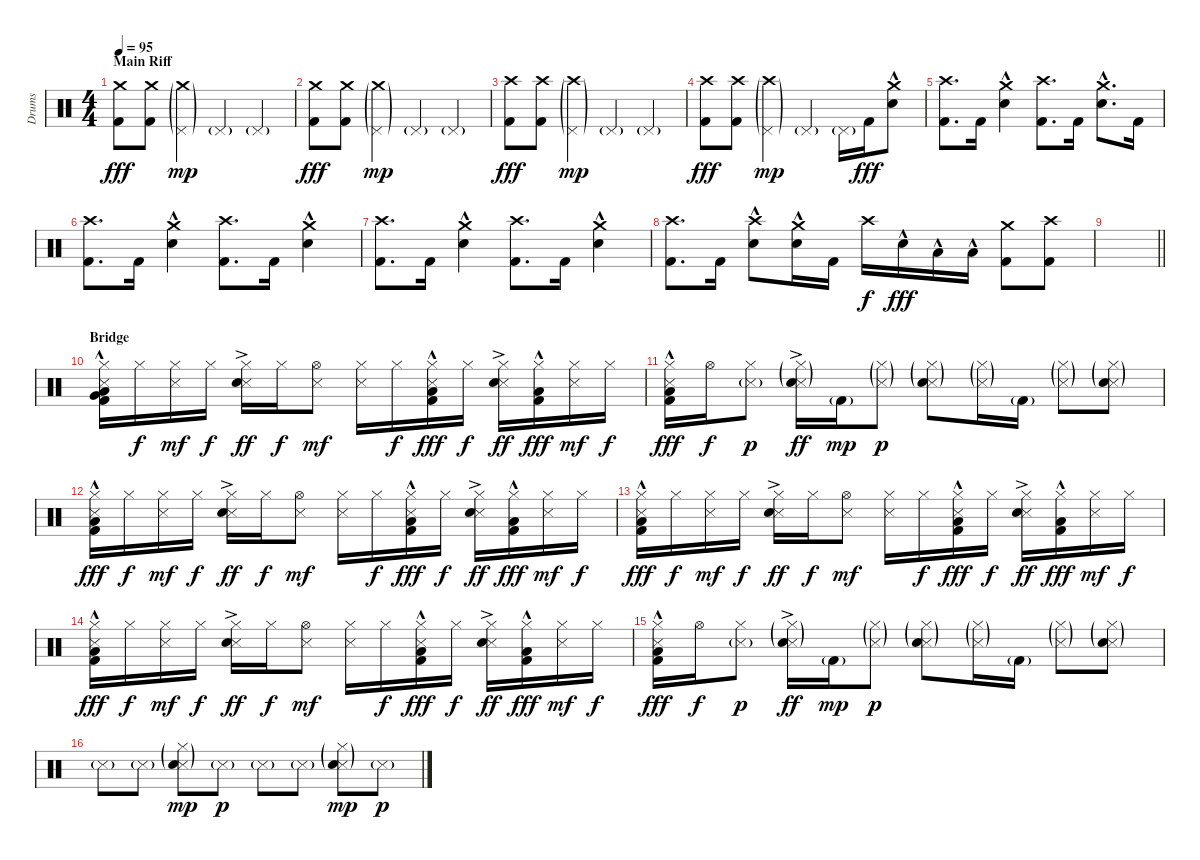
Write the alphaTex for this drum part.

\track ("Drums" "Drums") {instrument percussion}
\staff {score}
\articulation defaults
\ts (4 4)
\section ("" "Main Riff")
\tempo 95
\clef neutral
\ks c
("Crash medium (hit)" "Kick (hit) 2").8{dy fff volume 10} ("Crash medium (hit)" "Kick (hit) 2").8 ("Crash medium (hit)"{g} "Pedal Hi-Hat (hit)"{g}).4{dy mp} "Pedal Hi-Hat (hit)"{g}.4 "Pedal Hi-Hat (hit)"{g}.4 |
("Crash medium (hit)" "Kick (hit) 2").8{dy fff} ("Crash medium (hit)" "Kick (hit) 2").8 ("Crash medium (hit)"{g} "Pedal Hi-Hat (hit)"{g}).4{dy mp} "Pedal Hi-Hat (hit)"{g}.4 "Pedal Hi-Hat (hit)"{g}.4 |
("Crash high (hit)" "Kick (hit) 2").8{dy fff} ("Crash high (hit)" "Kick (hit) 2").8 ("Crash high (hit)"{g} "Pedal Hi-Hat (hit)"{g}).4{dy mp} "Pedal Hi-Hat (hit)"{g}.4 "Pedal Hi-Hat (hit)"{g}.4 |
("Crash high (hit)" "Kick (hit) 2").8{dy fff} ("Crash high (hit)" "Kick (hit) 2").8 ("Crash high (hit)"{g} "Pedal Hi-Hat (hit)"{g}).4{dy mp} "Pedal Hi-Hat (hit)"{g}.4 "Pedal Hi-Hat (hit)"{g}.16 "Kick (hit) 2".16{dy fff} ("Crash medium (hit)" "Electric Snare (hit)"{hac}).8 |
("Crash high (hit)" "Kick (hit) 2").8{d} "Kick (hit) 2".16 ("Crash medium (hit)" "Electric Snare (hit)"{hac}).4 ("Crash high (hit)" "Kick (hit) 2").8{d} "Kick (hit) 2".16 ("Crash medium (hit)" "Electric Snare (hit)"{hac}).8{d} "Kick (hit) 2".16 |
("Crash high (hit)" "Kick (hit) 2").8{d} "Kick (hit) 2".16 ("Crash medium (hit)" "Electric Snare (hit)"{hac}).4 ("Crash high (hit)" "Kick (hit) 2").8{d} "Kick (hit) 2".16 ("Crash medium (hit)" "Electric Snare (hit)"{hac}).4 |
("Crash high (hit)" "Kick (hit) 2").8{d} "Kick (hit) 2".16 ("Crash medium (hit)" "Electric Snare (hit)"{hac}).4 ("Crash high (hit)" "Kick (hit) 2").8{d} "Kick (hit) 2".16 ("Crash medium (hit)" "Electric Snare (hit)"{hac}).4 |
("Crash high (hit)" "Kick (hit) 2").8{d} "Kick (hit) 2".16 ("Crash high (hit)" "Electric Snare (hit)"{hac}).8 ("Crash medium (hit)" "Electric Snare (hit)"{hac}).16 "Kick (hit) 2".16 "Crash high (hit)".16{dy f} "Electric Snare (hit)"{hac}.16{dy fff} "Low Tom (hit)"{hac}.16 "Low Tom (hit)"{hac}.16 ("Crash medium (hit)" "Kick (hit) 2").8 ("Crash high (hit)" "Kick (hit) 2").8 |
\barLineRight lightlight
|
\section ("" "Bridge")
("Metronome (hit)" "Hi-Hat (closed)" "Very Low Tom (hit)"{hac} "Low Floor Tom (hit)"{hac} "Kick (hit) 2").16 "Hi-Hat (closed)".16{dy f} ("Metronome (hit)" "Hi-Hat (closed)").16{dy mf} "Hi-Hat (closed)".16{dy f} ("Metronome (hit)" "Hi-Hat (closed)" "Electric Snare (hit)"{ac}).16{dy ff} "Hi-Hat (closed)".16{dy f} ("Metronome (hit)" "Hi-Hat (open)").8{dy mf} ("Metronome (hit)" "Hi-Hat (closed)").16 "Hi-Hat (closed)".16{dy f} ("Metronome (hit)" "Hi-Hat (closed)" "Low Floor Tom (hit)"{hac} "Kick (hit) 2").16{dy fff} "Hi-Hat (closed)".16{dy f} ("Metronome (hit)" "Hi-Hat (closed)" "Electric Snare (hit)"{ac}).16{dy ff} ("Hi-Hat (closed)" "Low Floor Tom (hit)"{hac} "Kick (hit) 2").16{dy fff} ("Metronome (hit)" "Hi-Hat (closed)").16{dy mf} "Hi-Hat (closed)".16{dy f} |
("Metronome (hit)" "Hi-Hat (closed)" "Low Floor Tom (hit)"{hac} "Kick (hit) 2").16{dy fff} "Hi-Hat (open)".16{dy f} ("Metronome (hit)"{g} "Hi-Hat (closed)").8{dy p} ("Metronome (hit)"{g} "Hi-Hat (closed)"{g} "Electric Snare (hit)"{ac}).16{dy ff} "Kick (hit) 2"{g}.16{dy mp} ("Metronome (hit)"{g} "Hi-Hat (closed)"{g}).8{dy p} ("Metronome (hit)"{g} "Hi-Hat (closed)"{g} "Electric Snare (hit)"{g}).8 ("Metronome (hit)"{g} "Hi-Hat (closed)"{g}).16 "Kick (hit) 2"{g}.16 ("Metronome (hit)"{g} "Hi-Hat (closed)"{g}).8 ("Metronome (hit)"{g} "Hi-Hat (closed)"{g} "Electric Snare (hit)"{g}).8 |
("Metronome (hit)" "Hi-Hat (closed)" "Low Floor Tom (hit)"{hac} "Kick (hit) 2").16{dy fff} "Hi-Hat (closed)".16{dy f} ("Metronome (hit)" "Hi-Hat (closed)").16{dy mf} "Hi-Hat (closed)".16{dy f} ("Metronome (hit)" "Hi-Hat (closed)" "Electric Snare (hit)"{ac}).16{dy ff} "Hi-Hat (closed)".16{dy f} ("Metronome (hit)" "Hi-Hat (open)").8{dy mf} ("Metronome (hit)" "Hi-Hat (closed)").16 "Hi-Hat (closed)".16{dy f} ("Metronome (hit)" "Hi-Hat (closed)" "Low Floor Tom (hit)"{hac} "Kick (hit) 2").16{dy fff} "Hi-Hat (closed)".16{dy f} ("Metronome (hit)" "Hi-Hat (closed)" "Electric Snare (hit)"{ac}).16{dy ff} ("Hi-Hat (closed)" "Low Floor Tom (hit)"{hac} "Kick (hit) 2").16{dy fff} ("Metronome (hit)" "Hi-Hat (closed)").16{dy mf} "Hi-Hat (closed)".16{dy f} |
("Metronome (hit)" "Hi-Hat (closed)" "Low Floor Tom (hit)"{hac} "Kick (hit) 2").16{dy fff} "Hi-Hat (closed)".16{dy f} ("Metronome (hit)" "Hi-Hat (closed)").16{dy mf} "Hi-Hat (closed)".16{dy f} ("Metronome (hit)" "Hi-Hat (closed)" "Electric Snare (hit)"{ac}).16{dy ff} "Hi-Hat (closed)".16{dy f} ("Metronome (hit)" "Hi-Hat (open)").8{dy mf} ("Metronome (hit)" "Hi-Hat (closed)").16 "Hi-Hat (closed)".16{dy f} ("Metronome (hit)" "Hi-Hat (closed)" "Low Floor Tom (hit)"{hac} "Kick (hit) 2").16{dy fff} "Hi-Hat (closed)".16{dy f} ("Metronome (hit)" "Hi-Hat (closed)" "Electric Snare (hit)"{ac}).16{dy ff} ("Hi-Hat (closed)" "Low Floor Tom (hit)"{hac} "Kick (hit) 2").16{dy fff} ("Metronome (hit)" "Hi-Hat (closed)").16{dy mf} "Hi-Hat (closed)".16{dy f} |
("Metronome (hit)" "Hi-Hat (closed)" "Low Floor Tom (hit)"{hac} "Kick (hit) 2").16{dy fff} "Hi-Hat (closed)".16{dy f} ("Metronome (hit)" "Hi-Hat (closed)").16{dy mf} "Hi-Hat (closed)".16{dy f} ("Metronome (hit)" "Hi-Hat (closed)" "Electric Snare (hit)"{ac}).16{dy ff} "Hi-Hat (closed)".16{dy f} ("Metronome (hit)" "Hi-Hat (open)").8{dy mf} ("Metronome (hit)" "Hi-Hat (closed)").16 "Hi-Hat (closed)".16{dy f} ("Metronome (hit)" "Hi-Hat (closed)" "Low Floor Tom (hit)"{hac} "Kick (hit) 2").16{dy fff} "Hi-Hat (closed)".16{dy f} ("Metronome (hit)" "Hi-Hat (closed)" "Electric Snare (hit)"{ac}).16{dy ff} ("Hi-Hat (closed)" "Low Floor Tom (hit)"{hac} "Kick (hit) 2").16{dy fff} ("Metronome (hit)" "Hi-Hat (closed)").16{dy mf} "Hi-Hat (closed)".16{dy f} |
("Metronome (hit)" "Hi-Hat (closed)" "Low Floor Tom (hit)"{hac} "Kick (hit) 2").16{dy fff} "Hi-Hat (open)".16{dy f} ("Metronome (hit)"{g} "Hi-Hat (closed)").8{dy p} ("Metronome (hit)"{g} "Hi-Hat (closed)"{g} "Electric Snare (hit)"{ac}).16{dy ff} "Kick (hit) 2"{g}.16{dy mp} ("Metronome (hit)"{g} "Hi-Hat (closed)"{g}).8{dy p} ("Metronome (hit)"{g} "Hi-Hat (closed)"{g} "Electric Snare (hit)"{g}).8 ("Metronome (hit)"{g} "Hi-Hat (closed)"{g}).16 "Kick (hit) 2"{g}.16 ("Metronome (hit)"{g} "Hi-Hat (closed)"{g}).8 ("Metronome (hit)"{g} "Hi-Hat (closed)"{g} "Electric Snare (hit)"{g}).8 |
"Metronome (hit)"{g}.8 "Metronome (hit)"{g}.8 ("Metronome (hit)"{g} "Hi-Hat (closed)"{g} "Electric Snare (hit)"{g}).8{dy mp} "Metronome (hit)"{g}.8{dy p} "Metronome (hit)"{g}.8 "Metronome (hit)"{g}.8 ("Metronome (hit)"{g} "Hi-Hat (closed)"{g} "Electric Snare (hit)"{g}).8{dy mp} "Metronome (hit)"{g}.8{dy p}
